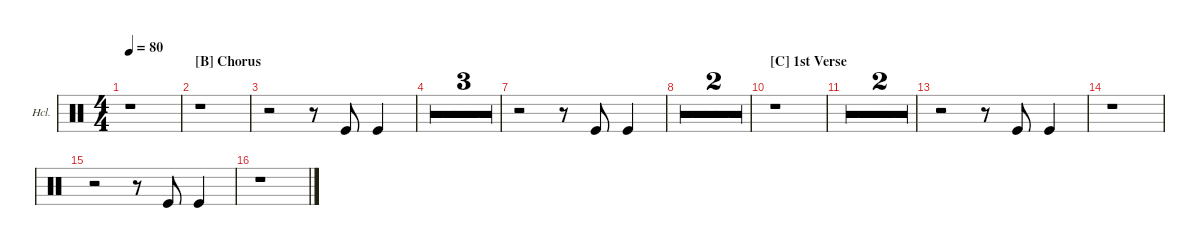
\defaultSystemsLayout 4
\hideDynamics
\bracketExtendMode groupsimilarinstruments
\firstSystemTrackNameOrientation horizontal
\otherSystemsTrackNameOrientation horizontal
\track ("Hand Clap" "Hcl.") {multiBarRest instrument percussion}
\staff {score}
\articulation defaults
\ts (4 4)
\tempo 80
\clef neutral
\ks c
r.1{dy mp} |
\section ("B" "Chorus")
r.1 |
r.2 r.8 "Kick (hit)".8 "Kick (hit)".4 |
r.1 |
r.1 |
r.1 |
r.2 r.8 "Kick (hit)".8 "Kick (hit)".4 |
r.1 |
r.1 |
\section ("C" "1st Verse")
r.1 |
r.1 |
r.1 |
r.2 r.8 "Kick (hit)".8 "Kick (hit)".4 |
r.1 |
r.2 r.8 "Kick (hit)".8 "Kick (hit)".4 |
r.1
